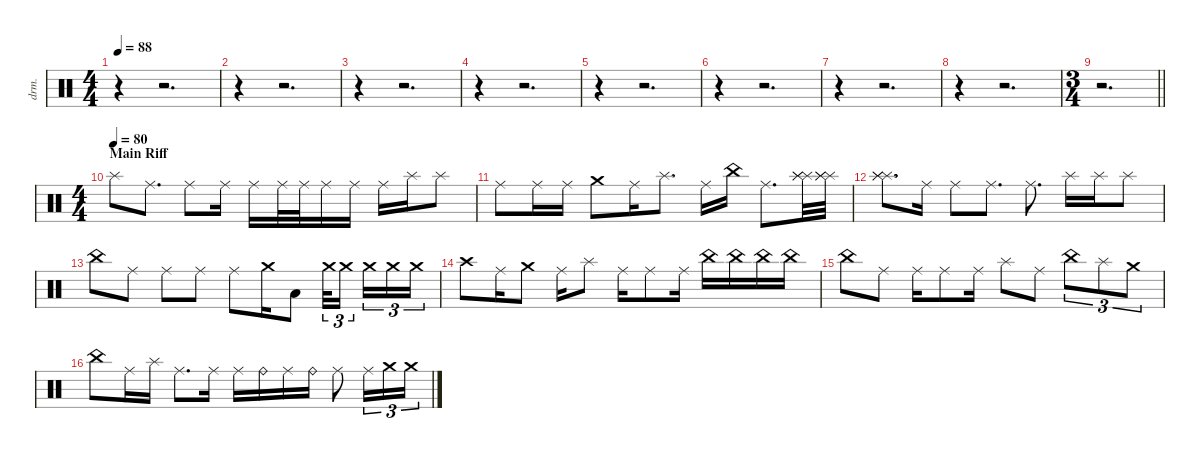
\defaultSystemsLayout 4
\hideDynamics
\bracketExtendMode nobrackets
\otherSystemsTrackNameOrientation horizontal
\track ("Percussions" "drm.") {instrument percussion}
\staff {score}
\articulation defaults
\ts (4 4)
\tempo 88
\clef neutral
\ks c
r.4{dy fff beam Down} r.2{d beam Down} |
r.4{beam Down} r.2{d beam Down} |
r.4{beam Down} r.2{d beam Down} |
r.4{beam Down} r.2{d beam Down} |
r.4{beam Down} r.2{d beam Down} |
r.4{beam Down} r.2{d beam Down} |
r.4{beam Down} r.2{d beam Down} |
r.4{beam Down} r.2{d beam Down} |
\ts (3 4)
\beaming (8 2 2 2)
\barLineRight lightlight
r.2{d beam Down} |
\ts (4 4)
\beaming (8 2 2 2 2)
\section ("" "Main Riff")
\tempo (80)
"Splash (hit)".8{beam Down} "Ride (middle)".8{d dy f beam Down} "Ride (middle)".8{beam Down} "Ride (middle)".16{beam Down} "Ride (middle)".16{beam Down} "Ride (middle)".32{beam Down} "Ride (middle)".32{beam Down} "Ride (middle)".16{beam Down} "Ride (middle)".16{beam Down} "Ride (middle)".16{beam Down} "Splash (hit)".16{dy fff beam Down} "Splash (hit)".8{beam Down} |
"Ride (middle)".8{dy f beam Down} "Ride (middle)".16{beam Down} "Ride (middle)".16{beam Down} "Crash medium (hit)".8{dy fff beam Down} "Ride (middle)".16{dy f beam Down} "Splash (hit)".8{d dy fff beam Down} "Ride (middle)".16{dy f beam Down} "China (hit)".16{dy fff beam Down} "Ride (middle)".8{d dy f beam Down} ("Splash (hit)" "Splash (hit)" "Splash (hit)").32{dy fff beam Down} ("Splash (hit)" "Splash (hit)" "Splash (hit)").32{beam Down} |
("Splash (hit)" "Splash (hit)" "Splash (hit)").8{d beam Down} "Ride (middle)".16{dy f beam Down} "Ride (middle)".8{beam Down} "Ride (middle)".8{d beam Down} "Ride (middle)".8{d dy fff beam Down} "Splash (hit)".16{beam Down} "Splash (hit)".16{beam Down} "Splash (hit)".8{beam Down} |
"China (hit)".8{beam Down} "Ride (middle)".8{dy f beam Down} "Ride (middle)".8{beam Down} "Ride (middle)".8{dy fff beam Down} "Ride (middle)".8{beam Down} "Crash medium (hit)".16{beam Down} "Low Floor Tom (hit)".8{beam Down} "Crash medium (hit)".32{tu (3 2) dy ppp beam Down} "Crash medium (hit)".16{tu (3 2) dy p beam Down} "Crash medium (hit)".16{tu (3 2) dy mf beam Down} "Crash medium (hit)".16{tu (3 2) dy f beam Down} "Crash medium (hit)".16{tu (3 2) beam Down} |
"Crash high (hit)".8{beam Down} "Ride (middle)".16{beam Down} "Crash medium (hit)".8{dy fff beam Down} "Ride (middle)".16{dy f beam Down} "Splash (hit)".8{dy fff beam Down} "Ride (middle)".16{beam Down} "Ride (middle)".8{beam Down} "Ride (middle)".16{beam Down} "China (hit)".16{dy pp beam Down} "China (hit)".16{dy p beam Down} "China (hit)".16{dy mp beam Down} "China (hit)".16{dy mf beam Down} |
"China (hit)".8{dy fff beam Down} "Ride (middle)".8{dy f beam Down} "Ride (middle)".16{beam Down} "Ride (middle)".8{beam Down} "Ride (middle)".16{beam Down} "Splash (hit)".8{dy fff beam Down} "Ride (middle)".8{dy f beam Down} "China (hit)".8{tu (3 2) dy fff beam Down} "Splash (hit)".8{tu (3 2) beam Down} "Crash medium (hit)".8{tu (3 2) beam Down} |
"China (hit)".8{beam Down} "Ride (middle)".16{dy f beam Down} "Splash (hit)".16{dy fff beam Down} "Ride (middle)".8{d dy f beam Down} "Ride (middle)".16{beam Down} "Ride (middle)".16{beam Down} "Ride (bell)".16{dy fff beam Down} "Ride (middle)".16{dy f beam Down} "Ride (bell)".16{dy fff beam Down} "Ride (middle)".8{dy f beam Down} "Ride (middle)".16{tu (3 2) beam Down} "Crash medium (hit)".16{tu (3 2) dy mp beam Down} "Crash medium (hit)".16{tu (3 2) dy f beam Down}
